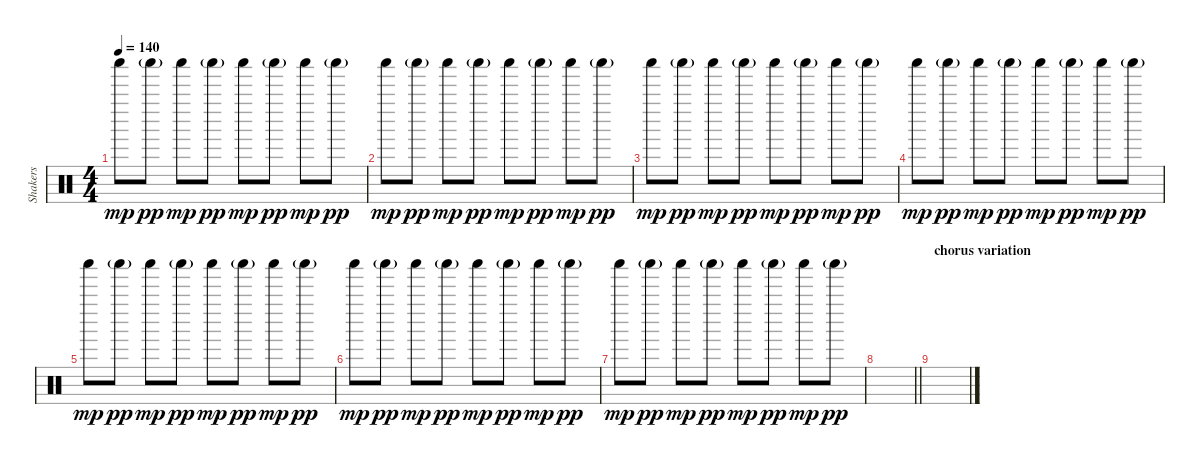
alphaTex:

\track ("Shakers" "Shakers") {instrument percussion}
\staff {score}
\articulation defaults
\ts (4 4)
\tempo 140
\clef neutral
\ks c "Shaker (hit)".8{dy mp} "Shaker (hit)"{g}.8{dy pp} "Shaker (hit)".8{dy mp} "Shaker (hit)"{g}.8{dy pp} "Shaker (hit)".8{dy mp} "Shaker (hit)"{g}.8{dy pp} "Shaker (hit)".8{dy mp} "Shaker (hit)"{g}.8{dy pp}
|
"Shaker (hit)".8{dy mp} "Shaker (hit)"{g}.8{dy pp} "Shaker (hit)".8{dy mp} "Shaker (hit)"{g}.8{dy pp} "Shaker (hit)".8{dy mp} "Shaker (hit)"{g}.8{dy pp} "Shaker (hit)".8{dy mp} "Shaker (hit)"{g}.8{dy pp} |
"Shaker (hit)".8{dy mp} "Shaker (hit)"{g}.8{dy pp} "Shaker (hit)".8{dy mp} "Shaker (hit)"{g}.8{dy pp} "Shaker (hit)".8{dy mp} "Shaker (hit)"{g}.8{dy pp} "Shaker (hit)".8{dy mp} "Shaker (hit)"{g}.8{dy pp} |
"Shaker (hit)".8{dy mp} "Shaker (hit)"{g}.8{dy pp} "Shaker (hit)".8{dy mp} "Shaker (hit)"{g}.8{dy pp} "Shaker (hit)".8{dy mp} "Shaker (hit)"{g}.8{dy pp} "Shaker (hit)".8{dy mp} "Shaker (hit)"{g}.8{dy pp} |
"Shaker (hit)".8{dy mp} "Shaker (hit)"{g}.8{dy pp} "Shaker (hit)".8{dy mp} "Shaker (hit)"{g}.8{dy pp} "Shaker (hit)".8{dy mp} "Shaker (hit)"{g}.8{dy pp} "Shaker (hit)".8{dy mp} "Shaker (hit)"{g}.8{dy pp} |
"Shaker (hit)".8{dy mp} "Shaker (hit)"{g}.8{dy pp} "Shaker (hit)".8{dy mp} "Shaker (hit)"{g}.8{dy pp} "Shaker (hit)".8{dy mp} "Shaker (hit)"{g}.8{dy pp} "Shaker (hit)".8{dy mp} "Shaker (hit)"{g}.8{dy pp} |
"Shaker (hit)".8{dy mp} "Shaker (hit)"{g}.8{dy pp} "Shaker (hit)".8{dy mp} "Shaker (hit)"{g}.8{dy pp} "Shaker (hit)".8{dy mp} "Shaker (hit)"{g}.8{dy pp} "Shaker (hit)".8{dy mp} "Shaker (hit)"{g}.8{dy pp} |
\barLineRight lightlight
|
\section ("" "chorus variation")
